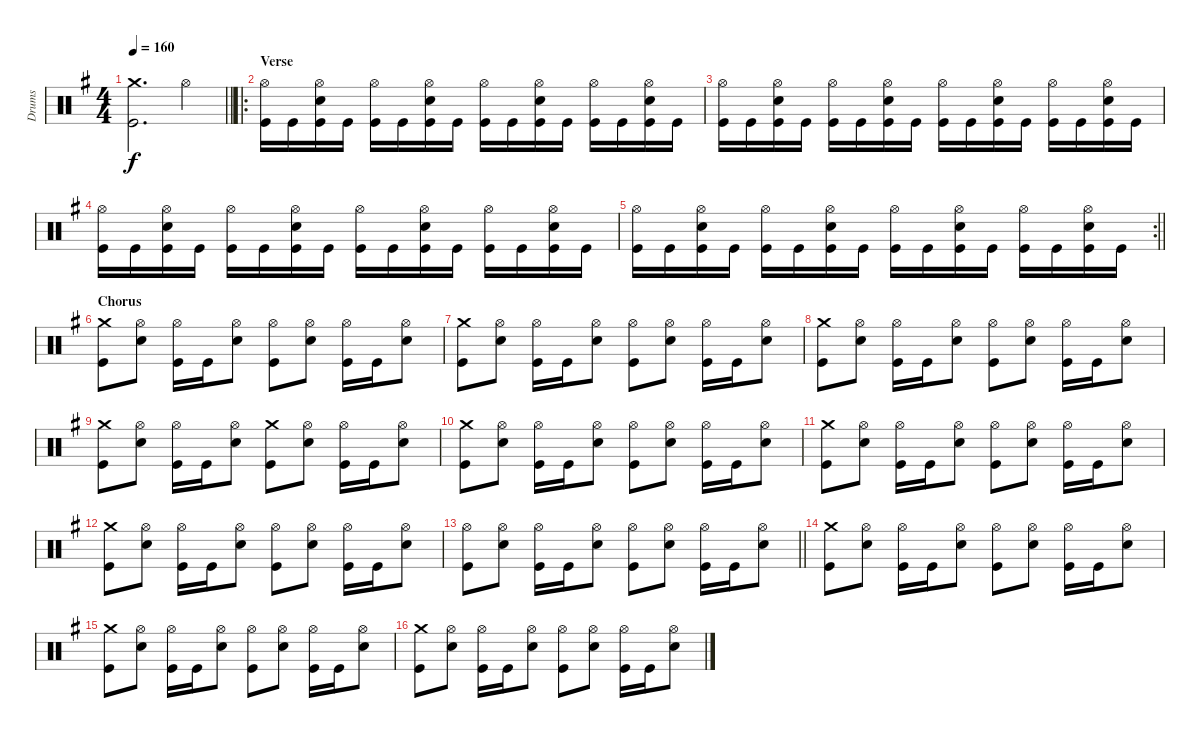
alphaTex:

\track ("Drums" "Drums") {instrument percussion}
\staff {score}
\articulation defaults
\ts (4 4)
\tempo 160
\clef neutral
\barLineRight lightlight
\ks eminor
("Crash medium (hit)" "Kick (hit)").2{d dy f} "Hi-Hat (open)".4 |
\ro
\section ("" "Verse")
("Hi-Hat (open)" "Kick (hit)").16 "Kick (hit)".16 ("Hi-Hat (open)" "Snare (hit) 2" "Kick (hit)").16 "Kick (hit)".16 ("Hi-Hat (open)" "Kick (hit)").16 "Kick (hit)".16 ("Hi-Hat (open)" "Snare (hit) 2" "Kick (hit)").16 "Kick (hit)".16 ("Hi-Hat (open)" "Kick (hit)").16 "Kick (hit)".16 ("Hi-Hat (open)" "Snare (hit) 2" "Kick (hit)").16 "Kick (hit)".16 ("Hi-Hat (open)" "Kick (hit)").16 "Kick (hit)".16 ("Hi-Hat (open)" "Snare (hit) 2" "Kick (hit)").16 "Kick (hit)".16 |
("Hi-Hat (open)" "Kick (hit)").16 "Kick (hit)".16 ("Hi-Hat (open)" "Snare (hit) 2" "Kick (hit)").16 "Kick (hit)".16 ("Hi-Hat (open)" "Kick (hit)").16 "Kick (hit)".16 ("Hi-Hat (open)" "Snare (hit) 2" "Kick (hit)").16 "Kick (hit)".16 ("Hi-Hat (open)" "Kick (hit)").16 "Kick (hit)".16 ("Hi-Hat (open)" "Snare (hit) 2" "Kick (hit)").16 "Kick (hit)".16 ("Hi-Hat (open)" "Kick (hit)").16 "Kick (hit)".16 ("Hi-Hat (open)" "Snare (hit) 2" "Kick (hit)").16 "Kick (hit)".16 |
("Hi-Hat (open)" "Kick (hit)").16 "Kick (hit)".16 ("Hi-Hat (open)" "Snare (hit) 2" "Kick (hit)").16 "Kick (hit)".16 ("Hi-Hat (open)" "Kick (hit)").16 "Kick (hit)".16 ("Hi-Hat (open)" "Snare (hit) 2" "Kick (hit)").16 "Kick (hit)".16 ("Hi-Hat (open)" "Kick (hit)").16 "Kick (hit)".16 ("Hi-Hat (open)" "Snare (hit) 2" "Kick (hit)").16 "Kick (hit)".16 ("Hi-Hat (open)" "Kick (hit)").16 "Kick (hit)".16 ("Hi-Hat (open)" "Snare (hit) 2" "Kick (hit)").16 "Kick (hit)".16 |
\rc 2
\barLineRight lightlight
("Hi-Hat (open)" "Kick (hit)").16 "Kick (hit)".16 ("Hi-Hat (open)" "Snare (hit) 2" "Kick (hit)").16 "Kick (hit)".16 ("Hi-Hat (open)" "Kick (hit)").16 "Kick (hit)".16 ("Hi-Hat (open)" "Snare (hit) 2" "Kick (hit)").16 "Kick (hit)".16 ("Hi-Hat (open)" "Kick (hit)").16 "Kick (hit)".16 ("Hi-Hat (open)" "Snare (hit) 2" "Kick (hit)").16 "Kick (hit)".16 ("Hi-Hat (open)" "Kick (hit)").16 "Kick (hit)".16 ("Hi-Hat (open)" "Snare (hit) 2" "Kick (hit)").16 "Kick (hit)".16 |
\section ("" "Chorus")
("Crash medium (hit)" "Kick (hit)").8 ("Hi-Hat (open)" "Snare (hit) 2").8 ("Hi-Hat (open)" "Kick (hit)").16 "Kick (hit)".16 ("Hi-Hat (open)" "Snare (hit) 2").8 ("Hi-Hat (open)" "Kick (hit)").8 ("Hi-Hat (open)" "Snare (hit) 2").8 ("Hi-Hat (open)" "Kick (hit)").16 "Kick (hit)".16 ("Hi-Hat (open)" "Snare (hit) 2").8 |
("Crash medium (hit)" "Kick (hit)").8 ("Hi-Hat (open)" "Snare (hit) 2").8 ("Hi-Hat (open)" "Kick (hit)").16 "Kick (hit)".16 ("Hi-Hat (open)" "Snare (hit) 2").8 ("Hi-Hat (open)" "Kick (hit)").8 ("Hi-Hat (open)" "Snare (hit) 2").8 ("Hi-Hat (open)" "Kick (hit)").16 "Kick (hit)".16 ("Hi-Hat (open)" "Snare (hit) 2").8 |
("Crash medium (hit)" "Kick (hit)").8 ("Hi-Hat (open)" "Snare (hit) 2").8 ("Hi-Hat (open)" "Kick (hit)").16 "Kick (hit)".16 ("Hi-Hat (open)" "Snare (hit) 2").8 ("Hi-Hat (open)" "Kick (hit)").8 ("Hi-Hat (open)" "Snare (hit) 2").8 ("Hi-Hat (open)" "Kick (hit)").16 "Kick (hit)".16 ("Hi-Hat (open)" "Snare (hit) 2").8 |
("Crash medium (hit)" "Kick (hit)").8 ("Hi-Hat (open)" "Snare (hit) 2").8 ("Hi-Hat (open)" "Kick (hit)").16 "Kick (hit)".16 ("Hi-Hat (open)" "Snare (hit) 2").8 ("Crash medium (hit)" "Kick (hit)").8 ("Hi-Hat (open)" "Snare (hit) 2").8 ("Hi-Hat (open)" "Kick (hit)").16 "Kick (hit)".16 ("Hi-Hat (open)" "Snare (hit) 2").8 |
("Crash medium (hit)" "Kick (hit)").8 ("Hi-Hat (open)" "Snare (hit) 2").8 ("Hi-Hat (open)" "Kick (hit)").16 "Kick (hit)".16 ("Hi-Hat (open)" "Snare (hit) 2").8 ("Hi-Hat (open)" "Kick (hit)").8 ("Hi-Hat (open)" "Snare (hit) 2").8 ("Hi-Hat (open)" "Kick (hit)").16 "Kick (hit)".16 ("Hi-Hat (open)" "Snare (hit) 2").8 |
("Crash medium (hit)" "Kick (hit)").8 ("Hi-Hat (open)" "Snare (hit) 2").8 ("Hi-Hat (open)" "Kick (hit)").16 "Kick (hit)".16 ("Hi-Hat (open)" "Snare (hit) 2").8 ("Hi-Hat (open)" "Kick (hit)").8 ("Hi-Hat (open)" "Snare (hit) 2").8 ("Hi-Hat (open)" "Kick (hit)").16 "Kick (hit)".16 ("Hi-Hat (open)" "Snare (hit) 2").8 |
("Crash medium (hit)" "Kick (hit)").8 ("Hi-Hat (open)" "Snare (hit) 2").8 ("Hi-Hat (open)" "Kick (hit)").16 "Kick (hit)".16 ("Hi-Hat (open)" "Snare (hit) 2").8 ("Hi-Hat (open)" "Kick (hit)").8 ("Hi-Hat (open)" "Snare (hit) 2").8 ("Hi-Hat (open)" "Kick (hit)").16 "Kick (hit)".16 ("Hi-Hat (open)" "Snare (hit) 2").8 |
\barLineRight lightlight
("Hi-Hat (open)" "Kick (hit)").8 ("Hi-Hat (open)" "Snare (hit) 2").8 ("Hi-Hat (open)" "Kick (hit)").16 "Kick (hit)".16 ("Hi-Hat (open)" "Snare (hit) 2").8 ("Hi-Hat (open)" "Kick (hit)").8 ("Hi-Hat (open)" "Snare (hit) 2").8 ("Hi-Hat (open)" "Kick (hit)").16 "Kick (hit)".16 ("Hi-Hat (open)" "Snare (hit) 2").8 |
("Crash medium (hit)" "Kick (hit)").8 ("Hi-Hat (open)" "Snare (hit) 2").8 ("Hi-Hat (open)" "Kick (hit)").16 "Kick (hit)".16 ("Hi-Hat (open)" "Snare (hit) 2").8 ("Hi-Hat (open)" "Kick (hit)").8 ("Hi-Hat (open)" "Snare (hit) 2").8 ("Hi-Hat (open)" "Kick (hit)").16 "Kick (hit)".16 ("Hi-Hat (open)" "Snare (hit) 2").8 |
("Crash medium (hit)" "Kick (hit)").8 ("Hi-Hat (open)" "Snare (hit) 2").8 ("Hi-Hat (open)" "Kick (hit)").16 "Kick (hit)".16 ("Hi-Hat (open)" "Snare (hit) 2").8 ("Hi-Hat (open)" "Kick (hit)").8 ("Hi-Hat (open)" "Snare (hit) 2").8 ("Hi-Hat (open)" "Kick (hit)").16 "Kick (hit)".16 ("Hi-Hat (open)" "Snare (hit) 2").8 |
("Crash medium (hit)" "Kick (hit)").8 ("Hi-Hat (open)" "Snare (hit) 2").8 ("Hi-Hat (open)" "Kick (hit)").16 "Kick (hit)".16 ("Hi-Hat (open)" "Snare (hit) 2").8 ("Hi-Hat (open)" "Kick (hit)").8 ("Hi-Hat (open)" "Snare (hit) 2").8 ("Hi-Hat (open)" "Kick (hit)").16 "Kick (hit)".16 ("Hi-Hat (open)" "Snare (hit) 2").8
